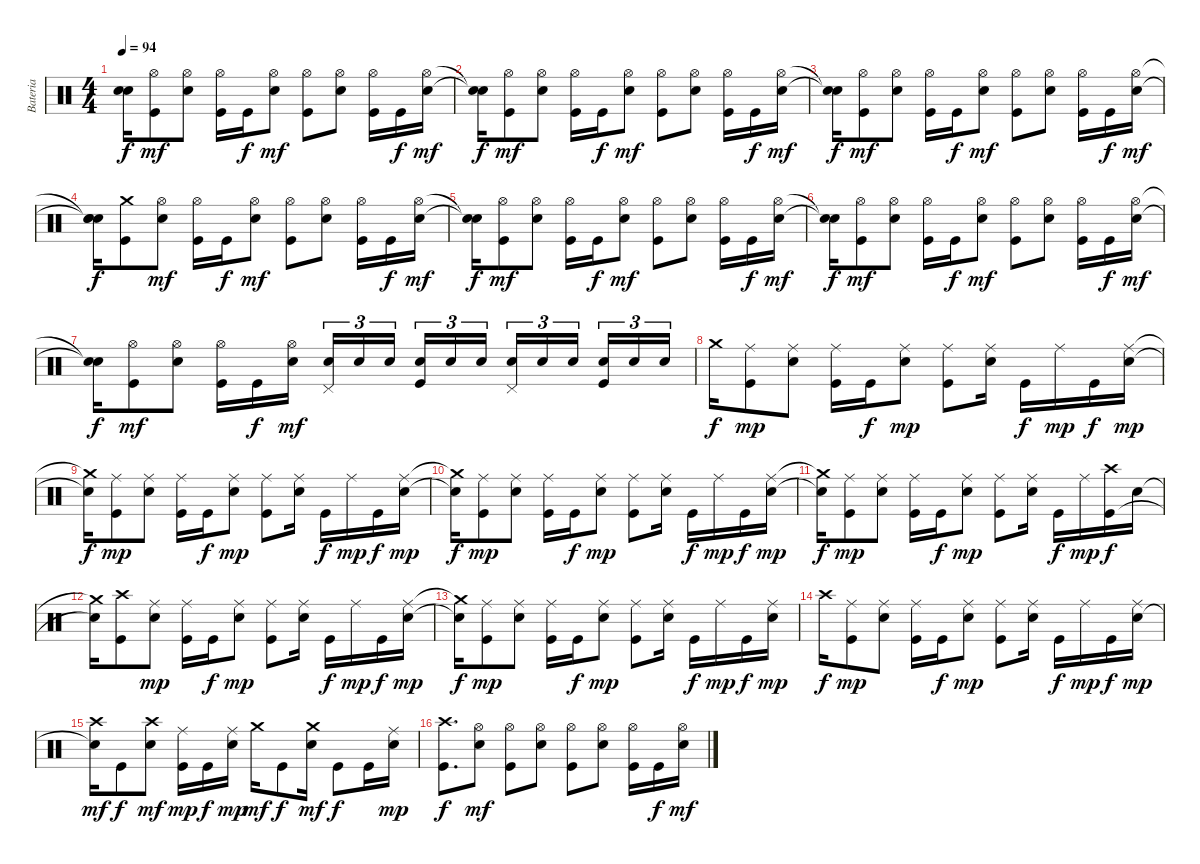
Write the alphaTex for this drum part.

\track ("Bateria" "Bateria") {instrument percussion}
\staff {score}
\articulation defaults
\ts (4 4)
\tempo 94
\clef neutral
\ks c
("Snare (hit)"{t} "Snare (hit)"{t}).16{dy f} ("Hi-Hat (open)" "Kick (hit)").8{dy mf} ("Hi-Hat (open)" "Snare (hit) 2").8 ("Hi-Hat (open)" "Kick (hit)").16 "Kick (hit)".16{dy f} ("Hi-Hat (open)" "Snare (hit) 2").8{dy mf} ("Hi-Hat (open)" "Kick (hit)").8 ("Hi-Hat (open)" "Snare (hit) 2").8 ("Hi-Hat (open)" "Kick (hit)").16 "Kick (hit)".16{dy f} ("Hi-Hat (open)" "Snare (hit) 2").16{dy mf} |
("Snare (hit)"{t} "Snare (hit)"{t}).16{dy f} ("Hi-Hat (open)" "Kick (hit)").8{dy mf} ("Hi-Hat (open)" "Snare (hit) 2").8 ("Hi-Hat (open)" "Kick (hit)").16 "Kick (hit)".16{dy f} ("Hi-Hat (open)" "Snare (hit) 2").8{dy mf} ("Hi-Hat (open)" "Kick (hit)").8 ("Hi-Hat (open)" "Snare (hit) 2").8 ("Hi-Hat (open)" "Kick (hit)").16 "Kick (hit)".16{dy f} ("Hi-Hat (open)" "Snare (hit) 2").16{dy mf} |
("Snare (hit)"{t} "Snare (hit)"{t}).16{dy f} ("Hi-Hat (open)" "Kick (hit)").8{dy mf} ("Hi-Hat (open)" "Snare (hit) 2").8 ("Hi-Hat (open)" "Kick (hit)").16 "Kick (hit)".16{dy f} ("Hi-Hat (open)" "Snare (hit) 2").8{dy mf} ("Hi-Hat (open)" "Kick (hit)").8 ("Hi-Hat (open)" "Snare (hit) 2").8 ("Hi-Hat (open)" "Kick (hit)").16 "Kick (hit)".16{dy f} ("Hi-Hat (open)" "Snare (hit) 2").16{dy mf} |
("Snare (hit)"{t} "Snare (hit)"{t} "Snare (hit)").16{dy f} ("Crash medium (hit)" "Kick (hit)").8 ("Hi-Hat (open)" "Snare (hit) 2").8{dy mf} ("Hi-Hat (open)" "Kick (hit)").16 "Kick (hit)".16{dy f} ("Hi-Hat (open)" "Snare (hit) 2").8{dy mf} ("Hi-Hat (open)" "Kick (hit)").8 ("Hi-Hat (open)" "Snare (hit) 2").8 ("Hi-Hat (open)" "Kick (hit)").16 "Kick (hit)".16{dy f} ("Hi-Hat (open)" "Snare (hit) 2").16{dy mf} |
("Snare (hit)"{t} "Snare (hit)"{t}).16{dy f} ("Hi-Hat (open)" "Kick (hit)").8{dy mf} ("Hi-Hat (open)" "Snare (hit) 2").8 ("Hi-Hat (open)" "Kick (hit)").16 "Kick (hit)".16{dy f} ("Hi-Hat (open)" "Snare (hit) 2").8{dy mf} ("Hi-Hat (open)" "Kick (hit)").8 ("Hi-Hat (open)" "Snare (hit) 2").8 ("Hi-Hat (open)" "Kick (hit)").16 "Kick (hit)".16{dy f} ("Hi-Hat (open)" "Snare (hit) 2").16{dy mf} |
("Snare (hit)"{t} "Snare (hit)"{t}).16{dy f} ("Hi-Hat (open)" "Kick (hit)").8{dy mf} ("Hi-Hat (open)" "Snare (hit) 2").8 ("Hi-Hat (open)" "Kick (hit)").16 "Kick (hit)".16{dy f} ("Hi-Hat (open)" "Snare (hit) 2").8{dy mf} ("Hi-Hat (open)" "Kick (hit)").8 ("Hi-Hat (open)" "Snare (hit) 2").8 ("Hi-Hat (open)" "Kick (hit)").16 "Kick (hit)".16{dy f} ("Hi-Hat (open)" "Snare (hit) 2").16{dy mf} |
("Snare (hit)"{t} "Snare (hit)"{t}).16{dy f} ("Hi-Hat (open)" "Kick (hit)").8{dy mf} ("Hi-Hat (open)" "Snare (hit) 2").8 ("Hi-Hat (open)" "Kick (hit)").16 "Kick (hit)".16{dy f} ("Hi-Hat (open)" "Snare (hit) 2").16{dy mf} ("Snare (hit) 2" "Pedal Hi-Hat (hit)").16{tu (3 2)} "Snare (hit) 2".16{tu (3 2)} "Snare (hit) 2".16{tu (3 2) beam splitsecondary} ("Snare (hit) 2" "Kick (hit)").16{tu (3 2)} "Snare (hit) 2".16{tu (3 2)} "Snare (hit) 2".16{tu (3 2)} ("Snare (hit) 2" "Pedal Hi-Hat (hit)").16{tu (3 2)} "Snare (hit) 2".16{tu (3 2)} "Snare (hit) 2".16{tu (3 2) beam splitsecondary} ("Snare (hit) 2" "Kick (hit)").16{tu (3 2)} "Snare (hit) 2".16{tu (3 2)} "Snare (hit) 2".16{tu (3 2)} |
"Crash medium (hit)".16{dy f} ("Ride (middle)" "Kick (hit)").8{dy mp} ("Ride (middle)" "Snare (hit) 2").8 ("Ride (middle)" "Kick (hit)").16 "Kick (hit)".16{dy f} ("Ride (middle)" "Snare (hit) 2").8{dy mp} ("Ride (middle)" "Kick (hit)").8 ("Ride (middle)" "Snare (hit) 2").16 "Kick (hit)".16{dy f} "Ride (middle)".16{dy mp} "Kick (hit)".16{dy f} ("Ride (middle)" "Snare (hit) 2").16{dy mp} |
("Crash medium (hit)"{t} "Snare (hit)"{t}).16{dy f} ("Ride (middle)" "Kick (hit)").8{dy mp} ("Ride (middle)" "Snare (hit) 2").8 ("Ride (middle)" "Kick (hit)").16 "Kick (hit)".16{dy f} ("Ride (middle)" "Snare (hit) 2").8{dy mp} ("Ride (middle)" "Kick (hit)").8 ("Ride (middle)" "Snare (hit) 2").16 "Kick (hit)".16{dy f} "Ride (middle)".16{dy mp} "Kick (hit)".16{dy f} ("Ride (middle)" "Snare (hit) 2").16{dy mp} |
("Crash medium (hit)"{t} "Snare (hit)"{t}).16{dy f} ("Ride (middle)" "Kick (hit)").8{dy mp} ("Ride (middle)" "Snare (hit) 2").8 ("Ride (middle)" "Kick (hit)").16 "Kick (hit)".16{dy f} ("Ride (middle)" "Snare (hit) 2").8{dy mp} ("Ride (middle)" "Kick (hit)").8 ("Ride (middle)" "Snare (hit) 2").16 "Kick (hit)".16{dy f} "Ride (middle)".16{dy mp} "Kick (hit)".16{dy f} ("Ride (middle)" "Snare (hit) 2").16{dy mp} |
("Crash medium (hit)"{t} "Snare (hit)"{t}).16{dy f} ("Ride (middle)" "Kick (hit)").8{dy mp} ("Ride (middle)" "Snare (hit) 2").8 ("Ride (middle)" "Kick (hit)").16 "Kick (hit)".16{dy f} ("Ride (middle)" "Snare (hit) 2").8{dy mp} ("Ride (middle)" "Kick (hit)").8 ("Ride (middle)" "Snare (hit) 2").16 "Kick (hit)".16{dy f} "Ride (middle)".16{dy mp} ("Crash high (hit)" "Kick (hit)").16{dy f} "Snare (hit) 2".16 |
("Crash medium (hit)"{t} "Snare (hit)"{t}).16 ("Crash high (hit)" "Kick (hit)").8 ("Ride (middle)" "Snare (hit) 2").8{dy mp} ("Ride (middle)" "Kick (hit)").16 "Kick (hit)".16{dy f} ("Ride (middle)" "Snare (hit) 2").8{dy mp} ("Ride (middle)" "Kick (hit)").8 ("Ride (middle)" "Snare (hit) 2").16 "Kick (hit)".16{dy f} "Ride (middle)".16{dy mp} "Kick (hit)".16{dy f} ("Ride (middle)" "Snare (hit) 2").16{dy mp} |
("Crash medium (hit)"{t} "Snare (hit)"{t}).16{dy f} ("Ride (middle)" "Kick (hit)").8{dy mp} ("Ride (middle)" "Snare (hit) 2").8 ("Ride (middle)" "Kick (hit)").16 "Kick (hit)".16{dy f} ("Ride (middle)" "Snare (hit) 2").8{dy mp} ("Ride (middle)" "Kick (hit)").8 ("Ride (middle)" "Snare (hit) 2").16 "Kick (hit)".16{dy f} "Ride (middle)".16{dy mp} "Kick (hit)".16{dy f} ("Ride (middle)" "Snare (hit) 2").16{dy mp} |
"Crash high (hit)".16{dy f} ("Ride (middle)" "Kick (hit)").8{dy mp} ("Ride (middle)" "Snare (hit) 2").8 ("Ride (middle)" "Kick (hit)").16 "Kick (hit)".16{dy f} ("Ride (middle)" "Snare (hit) 2").8{dy mp} ("Ride (middle)" "Kick (hit)").8 ("Ride (middle)" "Snare (hit) 2").16 "Kick (hit)".16{dy f} "Ride (middle)".16{dy mp} "Kick (hit)".16{dy f} ("Ride (middle)" "Snare (hit) 2").16{dy mp} |
("Crash high (hit)" "Snare (hit)"{t}).16{dy mf} "Kick (hit)".8{dy f} ("Crash high (hit)" "Snare (hit) 2").8{dy mf} ("Ride (middle)" "Kick (hit)").16{dy mp} "Kick (hit)".16{dy f} ("Ride (middle)" "Snare (hit) 2").16{dy mp} "Crash medium (hit)".16{dy mf} "Kick (hit)".8{dy f} ("Crash medium (hit)" "Snare (hit) 2").16{dy mf} "Kick (hit)".8{dy f} "Kick (hit)".16 ("Ride (middle)" "Snare (hit) 2").16{dy mp} |
("Crash high (hit)" "Kick (hit)").8{d dy f} ("Hi-Hat (open)" "Snare (hit) 2").8{dy mf} ("Hi-Hat (open)" "Kick (hit)").8 ("Hi-Hat (open)" "Snare (hit) 2").8 ("Hi-Hat (open)" "Kick (hit)").8 ("Hi-Hat (open)" "Snare (hit) 2").8 ("Hi-Hat (open)" "Kick (hit)").16 "Kick (hit)".16{dy f} ("Hi-Hat (open)" "Snare (hit) 2").16{dy mf}
